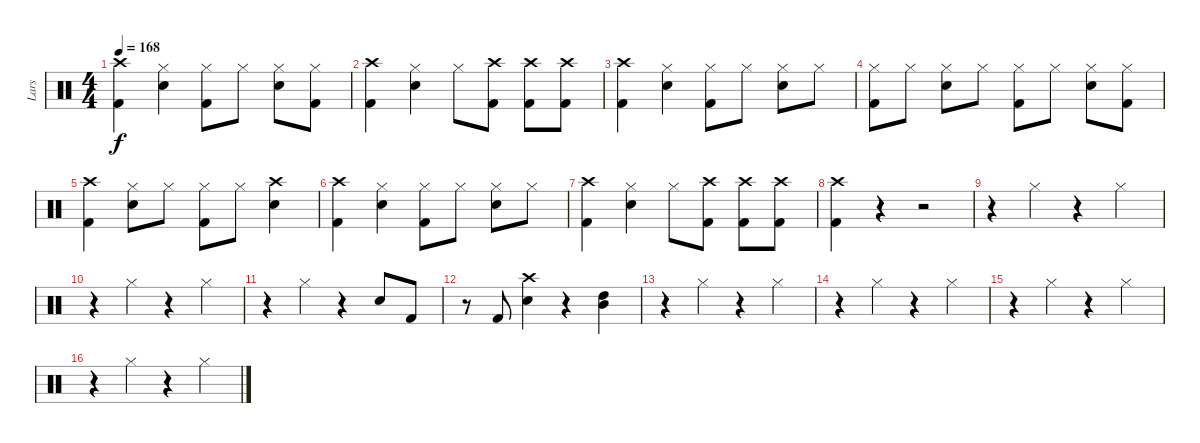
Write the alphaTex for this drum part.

\track ("Lars" "Lars") {instrument percussion}
\staff {score}
\articulation defaults
\ts (4 4)
\tempo 168
\clef neutral
\ks c
("Crash high (hit)" "Kick (hit) 2").4{dy f} ("Hi-Hat (closed)" "Snare (hit) 2").4 ("Hi-Hat (closed)" "Kick (hit) 2").8 "Hi-Hat (closed)".8 ("Hi-Hat (closed)" "Snare (hit) 2").8 ("Hi-Hat (closed)" "Kick (hit) 2").8 |
("Crash high (hit)" "Kick (hit) 2").4 ("Hi-Hat (closed)" "Snare (hit) 2").4 "Hi-Hat (closed)".8 ("Crash high (hit)" "Kick (hit) 2").8 ("Crash high (hit)" "Kick (hit) 2").8 ("Crash high (hit)" "Kick (hit) 2").8 |
("Crash high (hit)" "Kick (hit) 2").4 ("Hi-Hat (closed)" "Snare (hit) 2").4 ("Hi-Hat (closed)" "Kick (hit) 2").8 "Hi-Hat (closed)".8 ("Hi-Hat (closed)" "Snare (hit) 2").8 "Hi-Hat (closed)".8 |
("Hi-Hat (closed)" "Kick (hit) 2").8 "Hi-Hat (closed)".8 ("Hi-Hat (closed)" "Snare (hit) 2").8 "Hi-Hat (closed)".8 ("Hi-Hat (closed)" "Kick (hit) 2").8 "Hi-Hat (closed)".8 ("Hi-Hat (closed)" "Snare (hit) 2").8 ("Hi-Hat (closed)" "Kick (hit) 2").8 |
("Crash high (hit)" "Kick (hit) 2").4 ("Hi-Hat (closed)" "Snare (hit) 2").8 "Hi-Hat (closed)".8 ("Hi-Hat (closed)" "Kick (hit) 2").8 "Hi-Hat (closed)".8 ("Crash high (hit)" "Snare (hit) 2").4 |
("Crash high (hit)" "Kick (hit) 2").4 ("Hi-Hat (closed)" "Snare (hit) 2").4 ("Hi-Hat (closed)" "Kick (hit) 2").8 "Hi-Hat (closed)".8 ("Hi-Hat (closed)" "Snare (hit) 2").8 "Hi-Hat (closed)".8 |
("Crash high (hit)" "Kick (hit) 2").4 ("Hi-Hat (closed)" "Snare (hit) 2").4 "Hi-Hat (closed)".8 ("Crash high (hit)" "Kick (hit) 2").8 ("Crash high (hit)" "Kick (hit) 2").8 ("Crash high (hit)" "Kick (hit) 2").8 |
("Crash high (hit)" "Kick (hit) 2").4 r.4 r.2 |
r.4 "Hi-Hat (closed)".4 r.4 "Hi-Hat (closed)".4 |
r.4 "Hi-Hat (closed)".4 r.4 "Hi-Hat (closed)".4 |
r.4 "Hi-Hat (closed)".4 r.4 "Snare (hit) 2".8 "Kick (hit) 2".8 |
r.8 "Kick (hit) 2".8 ("Crash high (hit)" "Snare (hit) 2").4 r.4 ("High Tom (hit)" "Mid Tom (hit)").4 |
r.4 "Hi-Hat (closed)".4 r.4 "Hi-Hat (closed)".4 |
r.4 "Hi-Hat (closed)".4 r.4 "Hi-Hat (closed)".4 |
r.4 "Hi-Hat (closed)".4 r.4 "Hi-Hat (closed)".4 |
r.4 "Hi-Hat (closed)".4 r.4 "Hi-Hat (closed)".4
